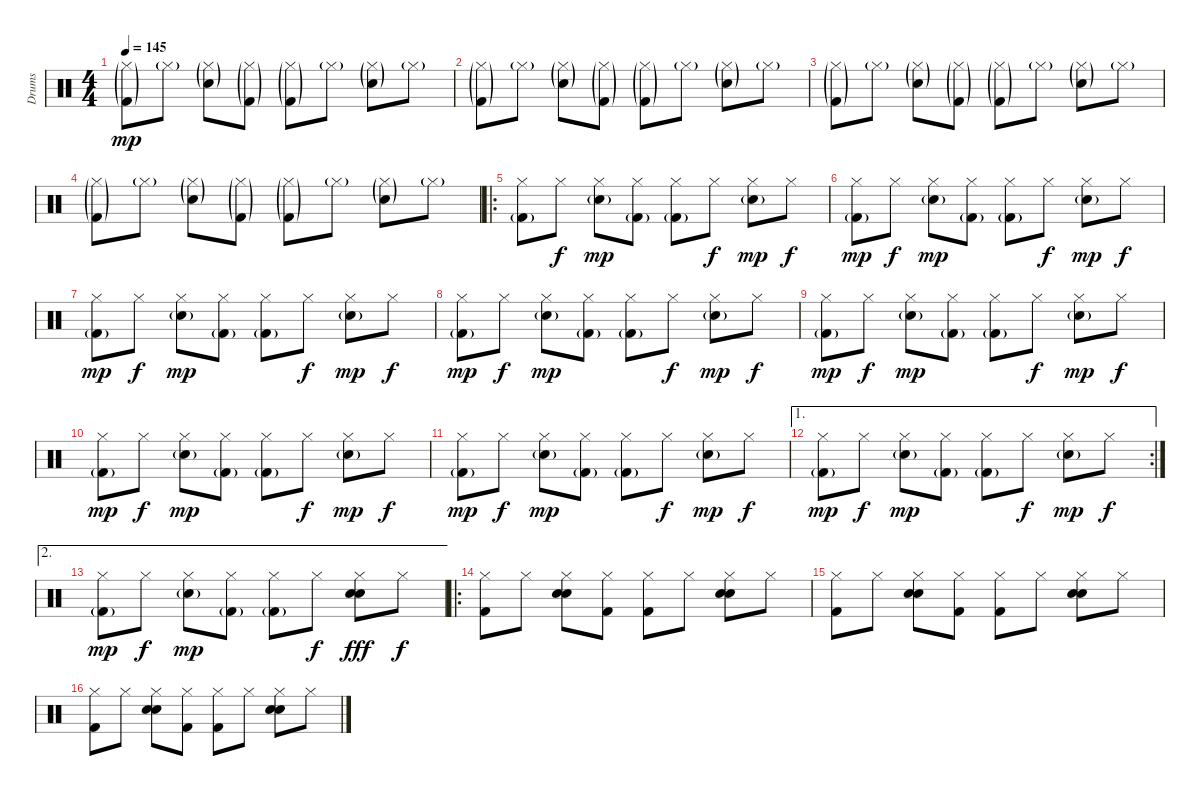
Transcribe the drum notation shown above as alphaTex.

\track ("Drums" "Drums") {instrument percussion}
\staff {score}
\articulation defaults
\ts (4 4)
\tempo 145
\clef neutral
\ks c
("Hi-Hat (closed)"{g} "Kick (hit) 2"{g}).8{dy mp volume 8} "Hi-Hat (closed)"{g}.8 ("Hi-Hat (closed)"{g} "Electric Snare (hit)"{g}).8 ("Hi-Hat (closed)"{g} "Kick (hit) 2"{g}).8 ("Hi-Hat (closed)"{g} "Kick (hit) 2"{g}).8 "Hi-Hat (closed)"{g}.8 ("Hi-Hat (closed)"{g} "Electric Snare (hit)"{g}).8 "Hi-Hat (closed)"{g}.8 |
("Hi-Hat (closed)"{g} "Kick (hit) 2"{g}).8 "Hi-Hat (closed)"{g}.8 ("Hi-Hat (closed)"{g} "Electric Snare (hit)"{g}).8 ("Hi-Hat (closed)"{g} "Kick (hit) 2"{g}).8 ("Hi-Hat (closed)"{g} "Kick (hit) 2"{g}).8 "Hi-Hat (closed)"{g}.8 ("Hi-Hat (closed)"{g} "Electric Snare (hit)"{g}).8 "Hi-Hat (closed)"{g}.8 |
("Hi-Hat (closed)"{g} "Kick (hit) 2"{g}).8 "Hi-Hat (closed)"{g}.8 ("Hi-Hat (closed)"{g} "Electric Snare (hit)"{g}).8 ("Hi-Hat (closed)"{g} "Kick (hit) 2"{g}).8 ("Hi-Hat (closed)"{g} "Kick (hit) 2"{g}).8 "Hi-Hat (closed)"{g}.8 ("Hi-Hat (closed)"{g} "Electric Snare (hit)"{g}).8 "Hi-Hat (closed)"{g}.8 |
("Hi-Hat (closed)"{g} "Kick (hit) 2"{g}).8 "Hi-Hat (closed)"{g}.8 ("Hi-Hat (closed)"{g} "Electric Snare (hit)"{g}).8 ("Hi-Hat (closed)"{g} "Kick (hit) 2"{g}).8 ("Hi-Hat (closed)"{g} "Kick (hit) 2"{g}).8 "Hi-Hat (closed)"{g}.8 ("Hi-Hat (closed)"{g} "Electric Snare (hit)"{g}).8 "Hi-Hat (closed)"{g}.8 |
\ro
("Hi-Hat (closed)" "Kick (hit) 2"{g}).8{volume 11} "Hi-Hat (closed)".8{dy f} ("Hi-Hat (closed)" "Electric Snare (hit)"{g}).8{dy mp} ("Hi-Hat (closed)" "Kick (hit) 2"{g}).8 ("Hi-Hat (closed)" "Kick (hit) 2"{g}).8 "Hi-Hat (closed)".8{dy f} ("Hi-Hat (closed)" "Electric Snare (hit)"{g}).8{dy mp} "Hi-Hat (closed)".8{dy f} |
("Hi-Hat (closed)" "Kick (hit) 2"{g}).8{dy mp} "Hi-Hat (closed)".8{dy f} ("Hi-Hat (closed)" "Electric Snare (hit)"{g}).8{dy mp} ("Hi-Hat (closed)" "Kick (hit) 2"{g}).8 ("Hi-Hat (closed)" "Kick (hit) 2"{g}).8 "Hi-Hat (closed)".8{dy f} ("Hi-Hat (closed)" "Electric Snare (hit)"{g}).8{dy mp} "Hi-Hat (closed)".8{dy f} |
("Hi-Hat (closed)" "Kick (hit) 2"{g}).8{dy mp} "Hi-Hat (closed)".8{dy f} ("Hi-Hat (closed)" "Electric Snare (hit)"{g}).8{dy mp} ("Hi-Hat (closed)" "Kick (hit) 2"{g}).8 ("Hi-Hat (closed)" "Kick (hit) 2"{g}).8 "Hi-Hat (closed)".8{dy f} ("Hi-Hat (closed)" "Electric Snare (hit)"{g}).8{dy mp} "Hi-Hat (closed)".8{dy f} |
("Hi-Hat (closed)" "Kick (hit) 2"{g}).8{dy mp} "Hi-Hat (closed)".8{dy f} ("Hi-Hat (closed)" "Electric Snare (hit)"{g}).8{dy mp} ("Hi-Hat (closed)" "Kick (hit) 2"{g}).8 ("Hi-Hat (closed)" "Kick (hit) 2"{g}).8 "Hi-Hat (closed)".8{dy f} ("Hi-Hat (closed)" "Electric Snare (hit)"{g}).8{dy mp} "Hi-Hat (closed)".8{dy f} |
("Hi-Hat (closed)" "Kick (hit) 2"{g}).8{dy mp} "Hi-Hat (closed)".8{dy f} ("Hi-Hat (closed)" "Electric Snare (hit)"{g}).8{dy mp} ("Hi-Hat (closed)" "Kick (hit) 2"{g}).8 ("Hi-Hat (closed)" "Kick (hit) 2"{g}).8 "Hi-Hat (closed)".8{dy f} ("Hi-Hat (closed)" "Electric Snare (hit)"{g}).8{dy mp} "Hi-Hat (closed)".8{dy f} |
("Hi-Hat (closed)" "Kick (hit) 2"{g}).8{dy mp} "Hi-Hat (closed)".8{dy f} ("Hi-Hat (closed)" "Electric Snare (hit)"{g}).8{dy mp} ("Hi-Hat (closed)" "Kick (hit) 2"{g}).8 ("Hi-Hat (closed)" "Kick (hit) 2"{g}).8 "Hi-Hat (closed)".8{dy f} ("Hi-Hat (closed)" "Electric Snare (hit)"{g}).8{dy mp} "Hi-Hat (closed)".8{dy f} |
("Hi-Hat (closed)" "Kick (hit) 2"{g}).8{dy mp} "Hi-Hat (closed)".8{dy f} ("Hi-Hat (closed)" "Electric Snare (hit)"{g}).8{dy mp} ("Hi-Hat (closed)" "Kick (hit) 2"{g}).8 ("Hi-Hat (closed)" "Kick (hit) 2"{g}).8 "Hi-Hat (closed)".8{dy f} ("Hi-Hat (closed)" "Electric Snare (hit)"{g}).8{dy mp} "Hi-Hat (closed)".8{dy f} |
\ae 1
\rc 2
("Hi-Hat (closed)" "Kick (hit) 2"{g}).8{dy mp} "Hi-Hat (closed)".8{dy f} ("Hi-Hat (closed)" "Electric Snare (hit)"{g}).8{dy mp} ("Hi-Hat (closed)" "Kick (hit) 2"{g}).8 ("Hi-Hat (closed)" "Kick (hit) 2"{g}).8 "Hi-Hat (closed)".8{dy f} ("Hi-Hat (closed)" "Electric Snare (hit)"{g}).8{dy mp} "Hi-Hat (closed)".8{dy f} |
\ae 2
("Hi-Hat (closed)" "Kick (hit) 2"{g}).8{dy mp} "Hi-Hat (closed)".8{dy f} ("Hi-Hat (closed)" "Electric Snare (hit)"{g}).8{dy mp} ("Hi-Hat (closed)" "Kick (hit) 2"{g}).8 ("Hi-Hat (closed)" "Kick (hit) 2"{g}).8 "Hi-Hat (closed)".8{dy f} ("Hi-Hat (closed)" "Snare (hit) 2" "Electric Snare (hit)").8{dy fff} "Hi-Hat (closed)".8{dy f} |
\ro
("Hi-Hat (closed)" "Kick (hit) 2").8 "Hi-Hat (closed)".8 ("Hi-Hat (closed)" "Electric Snare (hit)" "Snare (hit) 2").8 ("Hi-Hat (closed)" "Kick (hit) 2").8 ("Hi-Hat (closed)" "Kick (hit) 2").8 "Hi-Hat (closed)".8 ("Hi-Hat (closed)" "Electric Snare (hit)" "Snare (hit) 2").8 "Hi-Hat (closed)".8 |
("Hi-Hat (closed)" "Kick (hit) 2").8 "Hi-Hat (closed)".8 ("Hi-Hat (closed)" "Electric Snare (hit)" "Snare (hit) 2").8 ("Hi-Hat (closed)" "Kick (hit) 2").8 ("Hi-Hat (closed)" "Kick (hit) 2").8 "Hi-Hat (closed)".8 ("Hi-Hat (closed)" "Electric Snare (hit)" "Snare (hit) 2").8 "Hi-Hat (closed)".8 |
("Hi-Hat (closed)" "Kick (hit) 2").8 "Hi-Hat (closed)".8 ("Hi-Hat (closed)" "Electric Snare (hit)" "Snare (hit) 2").8 ("Hi-Hat (closed)" "Kick (hit) 2").8 ("Hi-Hat (closed)" "Kick (hit) 2").8 "Hi-Hat (closed)".8 ("Hi-Hat (closed)" "Electric Snare (hit)" "Snare (hit) 2").8 "Hi-Hat (closed)".8
